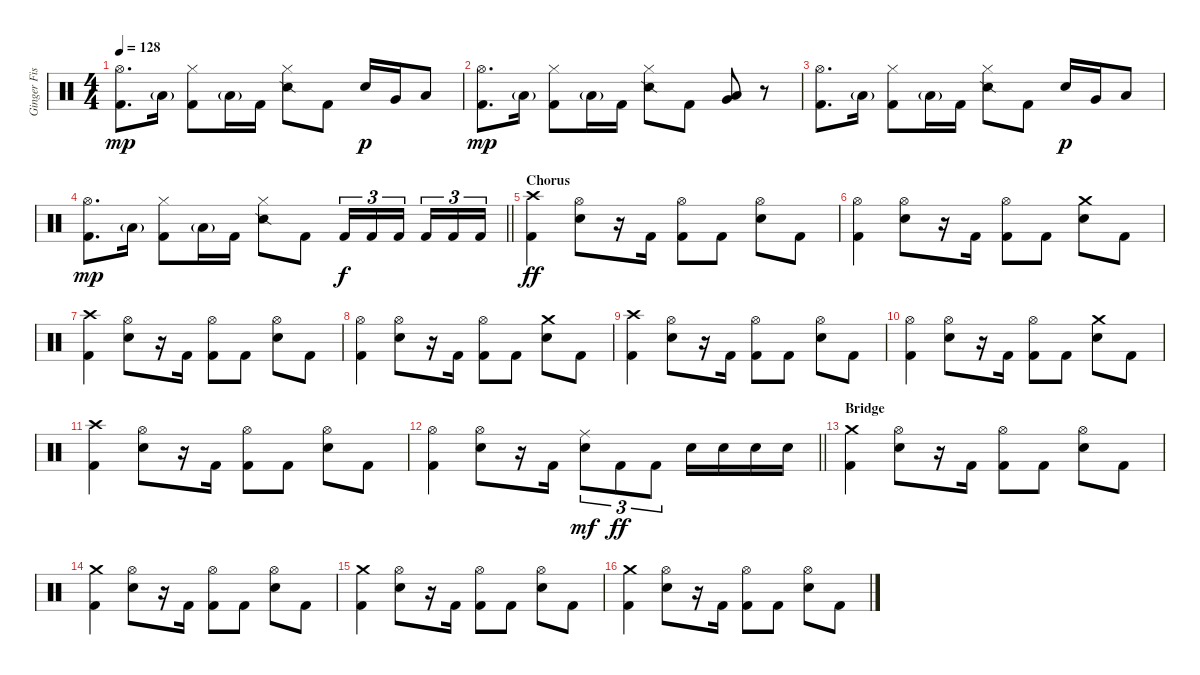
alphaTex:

\track ("Ginger Fish" "Ginger Fis") {instrument percussion}
\staff {score}
\articulation defaults
\ts (4 4)
\tempo 128
\clef neutral
\ks c
("Hi-Hat (open)" "Kick (hit) 2").8{d dy mp} "Low Tom (hit)"{g}.16 ("Hi-Hat (closed)" "Kick (hit) 2").8 "Low Floor Tom (hit)"{g}.16 "Kick (hit) 2".16 ("Hi-Hat (closed)" "Snare (side stick) 2").8 "Kick (hit) 2".8 "Electric Snare (hit)".16{dy p} "Very Low Tom (hit)".16 "Low Floor Tom (hit)".8 |
("Hi-Hat (open)" "Kick (hit) 2").8{d dy mp} "Low Tom (hit)"{g}.16 ("Hi-Hat (closed)" "Kick (hit) 2").8 "Low Floor Tom (hit)"{g}.16 "Kick (hit) 2".16 ("Hi-Hat (closed)" "Snare (side stick) 2").8 "Kick (hit) 2".8 ("Very Low Tom (hit)" "Low Floor Tom (hit)").8 r.8 |
("Hi-Hat (open)" "Kick (hit) 2").8{d} "Low Tom (hit)"{g}.16 ("Hi-Hat (closed)" "Kick (hit) 2").8 "Low Floor Tom (hit)"{g}.16 "Kick (hit) 2".16 ("Hi-Hat (closed)" "Snare (side stick) 2").8 "Kick (hit) 2".8 "Electric Snare (hit)".16{dy p} "Very Low Tom (hit)".16 "Low Floor Tom (hit)".8 |
\barLineRight lightlight
("Hi-Hat (open)" "Kick (hit) 2").8{d dy mp} "Low Tom (hit)"{g}.16 ("Hi-Hat (closed)" "Kick (hit) 2").8 "Low Floor Tom (hit)"{g}.16 "Kick (hit) 2".16 ("Hi-Hat (closed)" "Snare (side stick) 2").8 "Kick (hit) 2".8 "Kick (hit) 2".16{tu (3 2) dy f} "Kick (hit) 2".16{tu (3 2)} "Kick (hit) 2".16{tu (3 2) beam splitsecondary} "Kick (hit) 2".16{tu (3 2)} "Kick (hit) 2".16{tu (3 2)} "Kick (hit) 2".16{tu (3 2)} |
\section ("" "Chorus")
("Crash high (hit)" "Kick (hit) 2").4{dy ff} ("Hi-Hat (open)" "Electric Snare (hit)").8 r.16 "Kick (hit) 2".16 ("Hi-Hat (open)" "Kick (hit) 2").8 "Kick (hit) 2".8 ("Hi-Hat (open)" "Electric Snare (hit)").8 "Kick (hit) 2".8 |
("Hi-Hat (open)" "Kick (hit) 2").4 ("Hi-Hat (open)" "Electric Snare (hit)").8 r.16 "Kick (hit) 2".16 ("Hi-Hat (open)" "Kick (hit) 2").8 "Kick (hit) 2".8 ("Crash medium (hit)" "Electric Snare (hit)").8 "Kick (hit) 2".8 |
("Crash high (hit)" "Kick (hit) 2").4 ("Hi-Hat (open)" "Electric Snare (hit)").8 r.16 "Kick (hit) 2".16 ("Hi-Hat (open)" "Kick (hit) 2").8 "Kick (hit) 2".8 ("Hi-Hat (open)" "Electric Snare (hit)").8 "Kick (hit) 2".8 |
("Hi-Hat (open)" "Kick (hit) 2").4 ("Hi-Hat (open)" "Electric Snare (hit)").8 r.16 "Kick (hit) 2".16 ("Hi-Hat (open)" "Kick (hit) 2").8 "Kick (hit) 2".8 ("Crash medium (hit)" "Electric Snare (hit)").8 "Kick (hit) 2".8 |
("Crash high (hit)" "Kick (hit) 2").4 ("Hi-Hat (open)" "Electric Snare (hit)").8 r.16 "Kick (hit) 2".16 ("Hi-Hat (open)" "Kick (hit) 2").8 "Kick (hit) 2".8 ("Hi-Hat (open)" "Electric Snare (hit)").8 "Kick (hit) 2".8 |
("Hi-Hat (open)" "Kick (hit) 2").4 ("Hi-Hat (open)" "Electric Snare (hit)").8 r.16 "Kick (hit) 2".16 ("Hi-Hat (open)" "Kick (hit) 2").8 "Kick (hit) 2".8 ("Crash medium (hit)" "Electric Snare (hit)").8 "Kick (hit) 2".8 |
("Crash high (hit)" "Kick (hit) 2").4 ("Hi-Hat (open)" "Electric Snare (hit)").8 r.16 "Kick (hit) 2".16 ("Hi-Hat (open)" "Kick (hit) 2").8 "Kick (hit) 2".8 ("Hi-Hat (open)" "Electric Snare (hit)").8 "Kick (hit) 2".8 |
\barLineRight lightlight
("Hi-Hat (open)" "Kick (hit) 2").4 ("Hi-Hat (open)" "Electric Snare (hit)").8 r.16 "Kick (hit) 2".16 ("Ride (middle)" "Electric Snare (hit)").8{tu (3 2) dy mf} "Kick (hit) 2".8{tu (3 2) dy ff} "Kick (hit) 2".8{tu (3 2)} "Electric Snare (hit)".16 "Electric Snare (hit)".16 "Electric Snare (hit)".16 "Electric Snare (hit)".16 |
\section ("" "Bridge")
("Crash medium (hit)" "Kick (hit) 2").4 ("Hi-Hat (open)" "Electric Snare (hit)").8 r.16 "Kick (hit) 2".16 ("Hi-Hat (open)" "Kick (hit) 2").8 "Kick (hit) 2".8 ("Hi-Hat (open)" "Electric Snare (hit)").8 "Kick (hit) 2".8 |
("Crash medium (hit)" "Kick (hit) 2").4 ("Hi-Hat (open)" "Electric Snare (hit)").8 r.16 "Kick (hit) 2".16 ("Hi-Hat (open)" "Kick (hit) 2").8 "Kick (hit) 2".8 ("Hi-Hat (open)" "Electric Snare (hit)").8 "Kick (hit) 2".8 |
("Crash medium (hit)" "Kick (hit) 2").4 ("Hi-Hat (open)" "Electric Snare (hit)").8 r.16 "Kick (hit) 2".16 ("Hi-Hat (open)" "Kick (hit) 2").8 "Kick (hit) 2".8 ("Hi-Hat (open)" "Electric Snare (hit)").8 "Kick (hit) 2".8 |
("Crash medium (hit)" "Kick (hit) 2").4 ("Hi-Hat (open)" "Electric Snare (hit)").8 r.16 "Kick (hit) 2".16 ("Hi-Hat (open)" "Kick (hit) 2").8 "Kick (hit) 2".8 ("Hi-Hat (open)" "Electric Snare (hit)").8 "Kick (hit) 2".8
